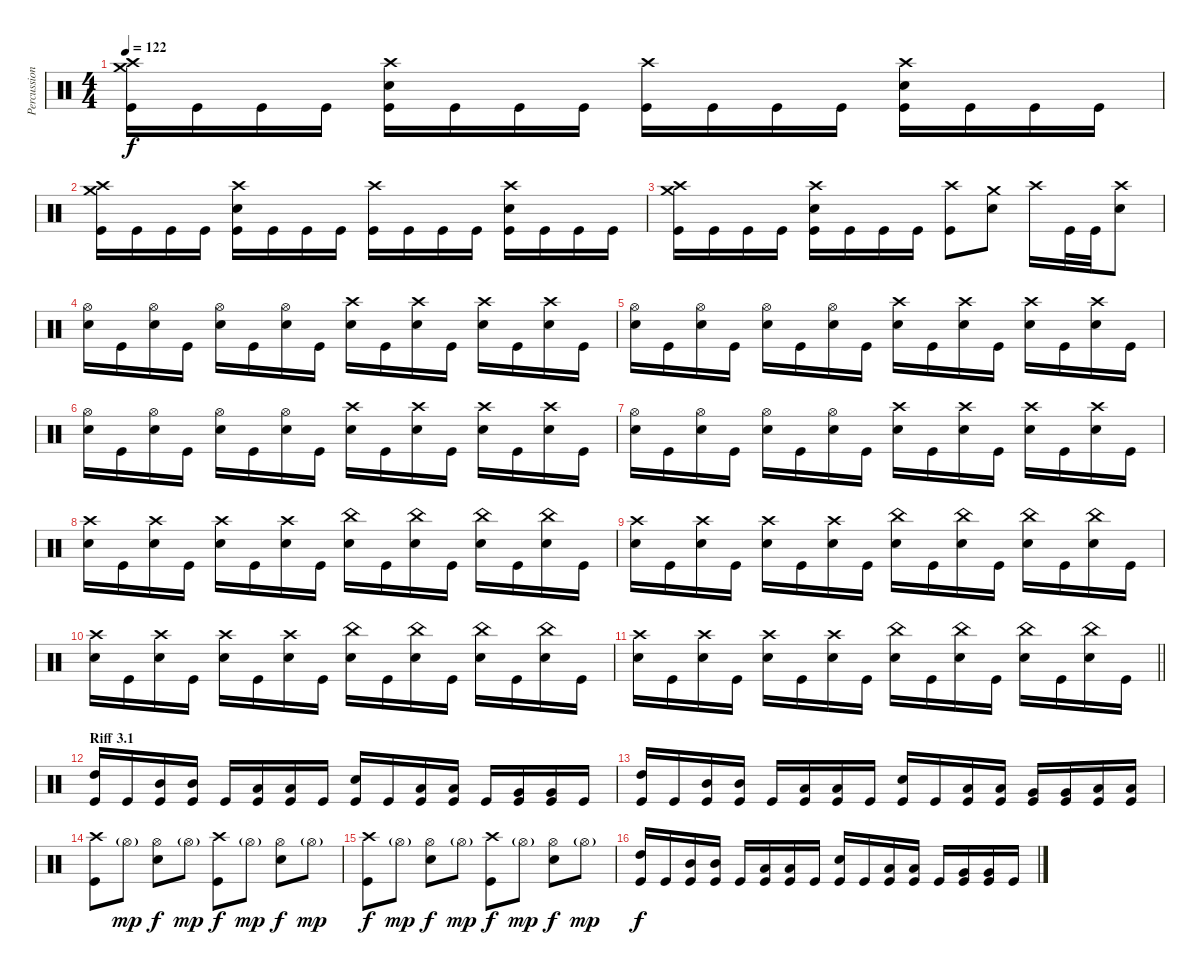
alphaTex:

\track ("Percussion" "Percussion") {instrument percussion}
\staff {score}
\articulation defaults
\ts (4 4)
\tempo 122
\clef neutral
\ks c
("Crash medium (hit)" "Crash high (hit)" "Kick (hit)").16{dy f} "Kick (hit)".16 "Kick (hit)".16 "Kick (hit)".16 ("Crash high (hit)" "Snare (hit) 2" "Kick (hit)").16 "Kick (hit)".16 "Kick (hit)".16 "Kick (hit)".16 ("Crash high (hit)" "Kick (hit)").16 "Kick (hit)".16 "Kick (hit)".16 "Kick (hit)".16 ("Crash high (hit)" "Snare (hit) 2" "Kick (hit)").16 "Kick (hit)".16 "Kick (hit)".16 "Kick (hit)".16 |
("Crash medium (hit)" "Crash high (hit)" "Kick (hit)").16 "Kick (hit)".16 "Kick (hit)".16 "Kick (hit)".16 ("Crash high (hit)" "Snare (hit) 2" "Kick (hit)").16 "Kick (hit)".16 "Kick (hit)".16 "Kick (hit)".16 ("Crash high (hit)" "Kick (hit)").16 "Kick (hit)".16 "Kick (hit)".16 "Kick (hit)".16 ("Crash high (hit)" "Snare (hit) 2" "Kick (hit)").16 "Kick (hit)".16 "Kick (hit)".16 "Kick (hit)".16 |
("Crash medium (hit)" "Crash high (hit)" "Kick (hit)").16 "Kick (hit)".16 "Kick (hit)".16 "Kick (hit)".16 ("Crash high (hit)" "Snare (hit) 2" "Kick (hit)").16 "Kick (hit)".16 "Kick (hit)".16 "Kick (hit)".16 ("Crash high (hit)" "Kick (hit)").8 ("Crash medium (hit)" "Snare (hit) 2").8 "Crash high (hit)".16 "Kick (hit)".32 "Kick (hit)".32 ("Crash high (hit)" "Snare (hit) 2").8 |
("Hi-Hat (open)" "Snare (hit) 2").16 "Kick (hit)".16 ("Hi-Hat (open)" "Snare (hit) 2").16 "Kick (hit)".16 ("Hi-Hat (open)" "Snare (hit) 2").16 "Kick (hit)".16 ("Hi-Hat (open)" "Snare (hit) 2").16 "Kick (hit)".16 ("Crash high (hit)" "Snare (hit) 2").16 "Kick (hit)".16 ("Crash high (hit)" "Snare (hit) 2").16 "Kick (hit)".16 ("Crash high (hit)" "Snare (hit) 2").16 "Kick (hit)".16 ("Crash high (hit)" "Snare (hit) 2").16 "Kick (hit)".16 |
("Hi-Hat (open)" "Snare (hit) 2").16 "Kick (hit)".16 ("Hi-Hat (open)" "Snare (hit) 2").16 "Kick (hit)".16 ("Hi-Hat (open)" "Snare (hit) 2").16 "Kick (hit)".16 ("Hi-Hat (open)" "Snare (hit) 2").16 "Kick (hit)".16 ("Crash high (hit)" "Snare (hit) 2").16 "Kick (hit)".16 ("Crash high (hit)" "Snare (hit) 2").16 "Kick (hit)".16 ("Crash high (hit)" "Snare (hit) 2").16 "Kick (hit)".16 ("Crash high (hit)" "Snare (hit) 2").16 "Kick (hit)".16 |
("Hi-Hat (open)" "Snare (hit) 2").16 "Kick (hit)".16 ("Hi-Hat (open)" "Snare (hit) 2").16 "Kick (hit)".16 ("Hi-Hat (open)" "Snare (hit) 2").16 "Kick (hit)".16 ("Hi-Hat (open)" "Snare (hit) 2").16 "Kick (hit)".16 ("Crash high (hit)" "Snare (hit) 2").16 "Kick (hit)".16 ("Crash high (hit)" "Snare (hit) 2").16 "Kick (hit)".16 ("Crash high (hit)" "Snare (hit) 2").16 "Kick (hit)".16 ("Crash high (hit)" "Snare (hit) 2").16 "Kick (hit)".16 |
("Hi-Hat (open)" "Snare (hit) 2").16 "Kick (hit)".16 ("Hi-Hat (open)" "Snare (hit) 2").16 "Kick (hit)".16 ("Hi-Hat (open)" "Snare (hit) 2").16 "Kick (hit)".16 ("Hi-Hat (open)" "Snare (hit) 2").16 "Kick (hit)".16 ("Crash high (hit)" "Snare (hit) 2").16 "Kick (hit)".16 ("Crash high (hit)" "Snare (hit) 2").16 "Kick (hit)".16 ("Crash high (hit)" "Snare (hit) 2").16 "Kick (hit)".16 ("Crash high (hit)" "Snare (hit) 2").16 "Kick (hit)".16 |
("Crash high (hit)" "Snare (hit) 2").16 "Kick (hit)".16 ("Crash high (hit)" "Snare (hit) 2").16 "Kick (hit)".16 ("Crash high (hit)" "Snare (hit) 2").16 "Kick (hit)".16 ("Crash high (hit)" "Snare (hit) 2").16 "Kick (hit)".16 ("China (hit)" "Snare (hit) 2").16 "Kick (hit)".16 ("China (hit)" "Snare (hit) 2").16 "Kick (hit)".16 ("China (hit)" "Snare (hit) 2").16 "Kick (hit)".16 ("China (hit)" "Snare (hit) 2").16 "Kick (hit)".16 |
("Crash high (hit)" "Snare (hit) 2").16 "Kick (hit)".16 ("Crash high (hit)" "Snare (hit) 2").16 "Kick (hit)".16 ("Crash high (hit)" "Snare (hit) 2").16 "Kick (hit)".16 ("Crash high (hit)" "Snare (hit) 2").16 "Kick (hit)".16 ("China (hit)" "Snare (hit) 2").16 "Kick (hit)".16 ("China (hit)" "Snare (hit) 2").16 "Kick (hit)".16 ("China (hit)" "Snare (hit) 2").16 "Kick (hit)".16 ("China (hit)" "Snare (hit) 2").16 "Kick (hit)".16 |
("Crash high (hit)" "Snare (hit) 2").16 "Kick (hit)".16 ("Crash high (hit)" "Snare (hit) 2").16 "Kick (hit)".16 ("Crash high (hit)" "Snare (hit) 2").16 "Kick (hit)".16 ("Crash high (hit)" "Snare (hit) 2").16 "Kick (hit)".16 ("China (hit)" "Snare (hit) 2").16 "Kick (hit)".16 ("China (hit)" "Snare (hit) 2").16 "Kick (hit)".16 ("China (hit)" "Snare (hit) 2").16 "Kick (hit)".16 ("China (hit)" "Snare (hit) 2").16 "Kick (hit)".16 |
\barLineRight lightlight
("Crash high (hit)" "Snare (hit) 2").16 "Kick (hit)".16 ("Crash high (hit)" "Snare (hit) 2").16 "Kick (hit)".16 ("Crash high (hit)" "Snare (hit) 2").16 "Kick (hit)".16 ("Crash high (hit)" "Snare (hit) 2").16 "Kick (hit)".16 ("China (hit)" "Snare (hit) 2").16 "Kick (hit)".16 ("China (hit)" "Snare (hit) 2").16 "Kick (hit)".16 ("China (hit)" "Snare (hit) 2").16 "Kick (hit)".16 ("China (hit)" "Snare (hit) 2").16 "Kick (hit)".16 |
\section ("" "Riff 3.1")
("High Tom (hit)" "Kick (hit)").16 "Kick (hit)".16 ("Mid Tom (hit)" "Kick (hit)").16 ("Mid Tom (hit)" "Kick (hit)").16 "Kick (hit)".16 ("Low Tom (hit)" "Kick (hit)").16 ("Low Tom (hit)" "Kick (hit)").16 "Kick (hit)".16 ("Snare (hit) 2" "Kick (hit)").16 "Kick (hit)".16 ("Low Tom (hit)" "Kick (hit)").16 ("Low Tom (hit)" "Kick (hit)").16 "Kick (hit)".16 ("Very Low Tom (hit)" "Kick (hit)").16 ("Very Low Tom (hit)" "Kick (hit)").16 "Kick (hit)".16 |
("High Tom (hit)" "Kick (hit)").16 "Kick (hit)".16 ("Mid Tom (hit)" "Kick (hit)").16 ("Mid Tom (hit)" "Kick (hit)").16 "Kick (hit)".16 ("Low Tom (hit)" "Kick (hit)").16 ("Low Tom (hit)" "Kick (hit)").16 "Kick (hit)".16 ("Snare (hit) 2" "Kick (hit)").16 "Kick (hit)".16 ("Low Tom (hit)" "Kick (hit)").16 ("Low Tom (hit)" "Kick (hit)").16 ("Very Low Tom (hit)" "Kick (hit)").16 ("Very Low Tom (hit)" "Kick (hit)").16 ("Low Floor Tom (hit)" "Kick (hit)").16 ("Low Floor Tom (hit)" "Kick (hit)").16 |
("Crash high (hit)" "Kick (hit)").8 "Hi-Hat (open)"{g}.8{dy mp} ("Hi-Hat (open)" "Snare (hit) 2").8{dy f} "Hi-Hat (open)"{g}.8{dy mp} ("Crash high (hit)" "Kick (hit)").8{dy f} "Hi-Hat (open)"{g}.8{dy mp} ("Hi-Hat (open)" "Snare (hit) 2").8{dy f} "Hi-Hat (open)"{g}.8{dy mp} |
("Crash high (hit)" "Kick (hit)").8{dy f} "Hi-Hat (open)"{g}.8{dy mp} ("Hi-Hat (open)" "Snare (hit) 2").8{dy f} "Hi-Hat (open)"{g}.8{dy mp} ("Crash high (hit)" "Kick (hit)").8{dy f} "Hi-Hat (open)"{g}.8{dy mp} ("Hi-Hat (open)" "Snare (hit) 2").8{dy f} "Hi-Hat (open)"{g}.8{dy mp} |
("High Tom (hit)" "Kick (hit)").16{dy f} "Kick (hit)".16 ("Mid Tom (hit)" "Kick (hit)").16 ("Mid Tom (hit)" "Kick (hit)").16 "Kick (hit)".16 ("Low Tom (hit)" "Kick (hit)").16 ("Low Tom (hit)" "Kick (hit)").16 "Kick (hit)".16 ("Snare (hit) 2" "Kick (hit)").16 "Kick (hit)".16 ("Low Tom (hit)" "Kick (hit)").16 ("Low Tom (hit)" "Kick (hit)").16 "Kick (hit)".16 ("Very Low Tom (hit)" "Kick (hit)").16 ("Very Low Tom (hit)" "Kick (hit)").16 "Kick (hit)".16
